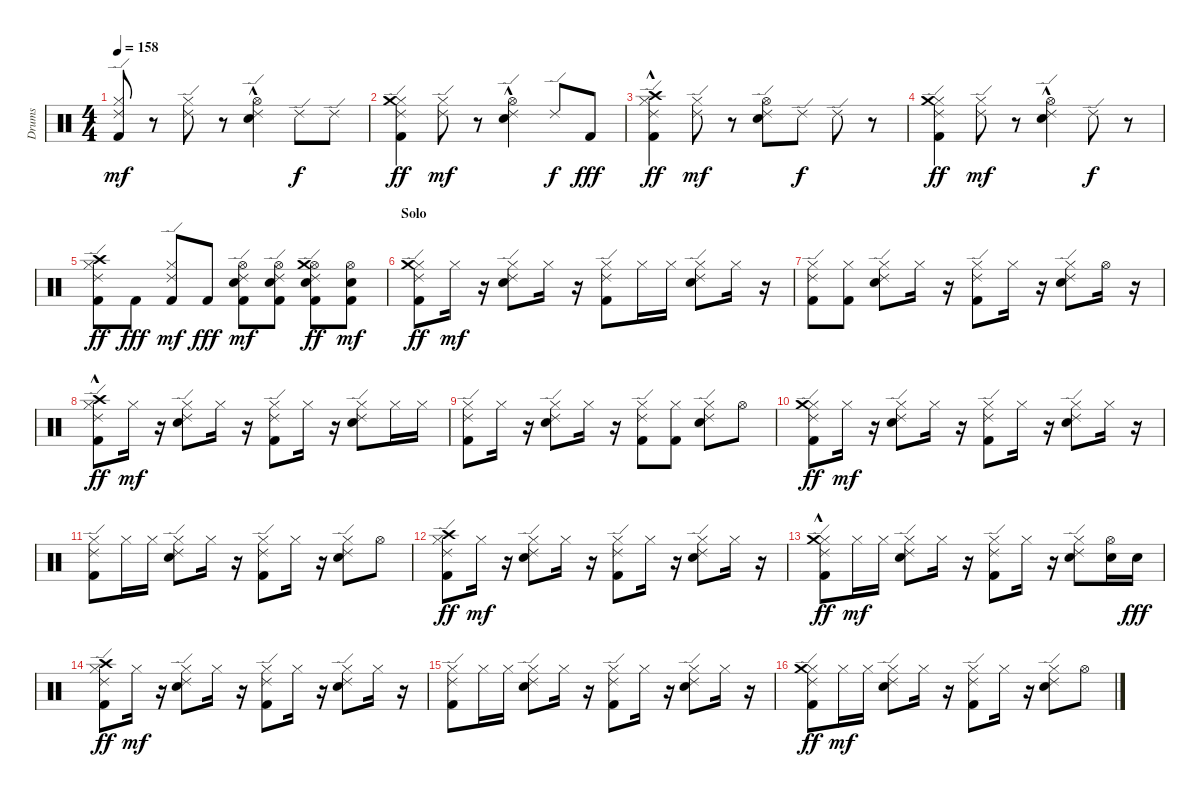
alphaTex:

\track ("Drums" "Drums") {instrument percussion}
\staff {score}
\articulation defaults
\ts (4 4)
\tempo 158
\clef neutral
\ks c
("Kick (hit) 2" "Hi-Hat (closed)" "Ride (edge) 2").8{dy mf} r.8 ("Hi-Hat (closed)" "Ride (edge) 2").8 r.8 ("Snare (hit) 2" "Hi-Hat (open)"{hac} "Ride (edge) 2").4 "Ride (edge) 2".8{dy f} "Ride (edge) 2".8 |
("Kick (hit) 2" "Hi-Hat (closed)" "Ride (edge) 2" "Crash medium (hit)").4{dy ff} ("Hi-Hat (closed)" "Ride (edge) 2").8{dy mf} r.8 ("Snare (hit) 2" "Hi-Hat (open)"{hac} "Ride (edge) 2").4 "Ride (edge) 2".8{dy f} "Kick (hit) 2".8{dy fff} |
("Kick (hit) 2" "Hi-Hat (closed)" "Ride (edge) 2" "Crash high (hit)"{hac}).4{dy ff} ("Hi-Hat (closed)" "Ride (edge) 2").8{dy mf} r.8 ("Snare (hit) 2" "Hi-Hat (open)" "Ride (edge) 2").8 "Ride (edge) 2".8{dy f} "Ride (edge) 2".8 r.8 |
("Kick (hit) 2" "Hi-Hat (closed)" "Ride (edge) 2" "Crash medium (hit)").4{dy ff} ("Hi-Hat (closed)" "Ride (edge) 2").8{dy mf} r.8 ("Snare (hit) 2" "Hi-Hat (open)"{hac} "Ride (edge) 2").4 "Ride (edge) 2".8{dy f} r.8 |
("Kick (hit) 2" "Hi-Hat (closed)" "Ride (edge) 2" "Crash high (hit)").8{dy ff} "Kick (hit) 2".8{dy fff} ("Kick (hit) 2" "Hi-Hat (closed)" "Ride (edge) 2").8{dy mf} "Kick (hit) 2".8{dy fff} ("Kick (hit) 2" "Snare (hit) 2" "Hi-Hat (open)" "Ride (edge) 2").8{dy mf} ("Kick (hit) 2" "Snare (hit) 2" "Hi-Hat (open)" "Ride (edge) 2").8 ("Kick (hit) 2" "Snare (hit) 2" "Hi-Hat (open)" "Ride (edge) 2" "Crash medium (hit)").8{dy ff} ("Kick (hit) 2" "Snare (hit) 2" "Hi-Hat (open)").8{dy mf} |
\section ("" "Solo")
("Kick (hit) 2" "Hi-Hat (closed)" "Ride (edge) 2" "Crash medium (hit)").8{dy ff} "Hi-Hat (closed)".16{dy mf} r.16 ("Snare (hit) 2" "Hi-Hat (closed)" "Ride (edge) 2").8 "Hi-Hat (closed)".16 r.16 ("Kick (hit) 2" "Hi-Hat (closed)" "Ride (edge) 2").8 "Hi-Hat (closed)".16 "Hi-Hat (closed)".16 ("Snare (hit) 2" "Hi-Hat (closed)" "Ride (edge) 2").8 "Hi-Hat (closed)".16 r.16 |
("Kick (hit) 2" "Hi-Hat (closed)" "Ride (edge) 2").8 ("Kick (hit) 2" "Hi-Hat (closed)").8 ("Snare (hit) 2" "Hi-Hat (closed)" "Ride (edge) 2").8 "Hi-Hat (closed)".16 r.16 ("Kick (hit) 2" "Hi-Hat (closed)" "Ride (edge) 2").8 "Hi-Hat (closed)".16 r.16 ("Snare (hit) 2" "Hi-Hat (closed)" "Ride (edge) 2").8 "Hi-Hat (open)".16 r.16 |
("Kick (hit) 2" "Hi-Hat (closed)" "Ride (edge) 2" "Crash high (hit)"{hac}).8{dy ff} "Hi-Hat (closed)".16{dy mf} r.16 ("Snare (hit) 2" "Hi-Hat (closed)" "Ride (edge) 2").8 "Hi-Hat (closed)".16 r.16 ("Kick (hit) 2" "Hi-Hat (closed)" "Ride (edge) 2").8 "Hi-Hat (closed)".16 r.16 ("Snare (hit) 2" "Hi-Hat (closed)" "Ride (edge) 2").8 "Hi-Hat (closed)".16 "Hi-Hat (closed)".16 |
("Kick (hit) 2" "Hi-Hat (closed)" "Ride (edge) 2").8 "Hi-Hat (closed)".16 r.16 ("Snare (hit) 2" "Hi-Hat (closed)" "Ride (edge) 2").8 "Hi-Hat (closed)".16 r.16 ("Kick (hit) 2" "Hi-Hat (closed)" "Ride (edge) 2").8 ("Kick (hit) 2" "Hi-Hat (closed)").8 ("Snare (hit) 2" "Hi-Hat (closed)" "Ride (edge) 2").8 "Hi-Hat (open)".8 |
("Kick (hit) 2" "Hi-Hat (closed)" "Ride (edge) 2" "Crash medium (hit)").8{dy ff} "Hi-Hat (closed)".16{dy mf} r.16 ("Snare (hit) 2" "Hi-Hat (closed)" "Ride (edge) 2").8 "Hi-Hat (closed)".16 r.16 ("Kick (hit) 2" "Hi-Hat (closed)" "Ride (edge) 2").8 "Hi-Hat (closed)".16 r.16 ("Snare (hit) 2" "Hi-Hat (closed)" "Ride (edge) 2").8 "Hi-Hat (closed)".16 r.16 |
("Kick (hit) 2" "Hi-Hat (closed)" "Ride (edge) 2").8 "Hi-Hat (closed)".16 "Hi-Hat (closed)".16 ("Snare (hit) 2" "Hi-Hat (closed)" "Ride (edge) 2").8 "Hi-Hat (closed)".16 r.16 ("Kick (hit) 2" "Hi-Hat (closed)" "Ride (edge) 2").8 "Hi-Hat (closed)".16 r.16 ("Snare (hit) 2" "Hi-Hat (closed)" "Ride (edge) 2").8 "Hi-Hat (open)".8 |
("Kick (hit) 2" "Hi-Hat (closed)" "Ride (edge) 2" "Crash high (hit)").8{dy ff} "Hi-Hat (closed)".16{dy mf} r.16 ("Snare (hit) 2" "Hi-Hat (closed)" "Ride (edge) 2").8 "Hi-Hat (closed)".16 r.16 ("Kick (hit) 2" "Hi-Hat (closed)" "Ride (edge) 2").8 "Hi-Hat (closed)".16 r.16 ("Snare (hit) 2" "Hi-Hat (closed)" "Ride (edge) 2").8 "Hi-Hat (closed)".16 r.16 |
("Kick (hit) 2" "Hi-Hat (closed)" "Ride (edge) 2" "Crash medium (hit)"{hac}).8{dy ff} "Hi-Hat (closed)".16{dy mf} "Hi-Hat (closed)".16 ("Snare (hit) 2" "Hi-Hat (closed)" "Ride (edge) 2").8 "Hi-Hat (closed)".16 r.16 ("Kick (hit) 2" "Hi-Hat (closed)" "Ride (edge) 2").8 "Hi-Hat (closed)".16 r.16 ("Snare (hit) 2" "Hi-Hat (closed)" "Ride (edge) 2").8 ("Snare (hit) 2" "Hi-Hat (open)").16 "Snare (hit) 2".16{dy fff} |
("Kick (hit) 2" "Hi-Hat (closed)" "Ride (edge) 2" "Crash high (hit)").8{dy ff} "Hi-Hat (closed)".16{dy mf} r.16 ("Snare (hit) 2" "Hi-Hat (closed)" "Ride (edge) 2").8 "Hi-Hat (closed)".16 r.16 ("Kick (hit) 2" "Hi-Hat (closed)" "Ride (edge) 2").8 "Hi-Hat (closed)".16 r.16 ("Snare (hit) 2" "Hi-Hat (closed)" "Ride (edge) 2").8 "Hi-Hat (closed)".16 r.16 |
("Kick (hit) 2" "Hi-Hat (closed)" "Ride (edge) 2").8 "Hi-Hat (closed)".16 "Hi-Hat (closed)".16 ("Snare (hit) 2" "Hi-Hat (closed)" "Ride (edge) 2").8 "Hi-Hat (closed)".16 r.16 ("Kick (hit) 2" "Hi-Hat (closed)" "Ride (edge) 2").8 "Hi-Hat (closed)".16 r.16 ("Snare (hit) 2" "Hi-Hat (closed)" "Ride (edge) 2").8 "Hi-Hat (closed)".16 r.16 |
("Kick (hit) 2" "Hi-Hat (closed)" "Ride (edge) 2" "Crash medium (hit)").8{dy ff} "Hi-Hat (closed)".16{dy mf} "Hi-Hat (closed)".16 ("Snare (hit) 2" "Hi-Hat (closed)" "Ride (edge) 2").8 "Hi-Hat (closed)".16 r.16 ("Kick (hit) 2" "Hi-Hat (closed)" "Ride (edge) 2").8 "Hi-Hat (closed)".16 r.16 ("Snare (hit) 2" "Hi-Hat (closed)" "Ride (edge) 2").8 "Hi-Hat (open)".8
